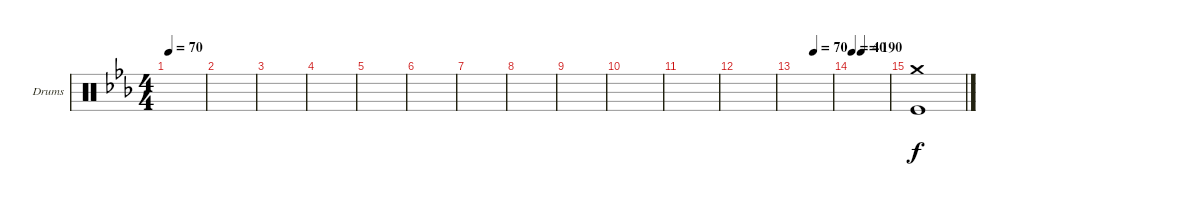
\defaultSystemsLayout 4
\bracketExtendMode groupsimilarinstruments
\firstSystemTrackNameOrientation horizontal
\otherSystemsTrackNameOrientation horizontal
\track ("Drumkit" "Drums") {instrument percussion}
\staff {score}
\articulation defaults
\ts (4 4)
\tempo 70
\clef neutral
\ks cminor
|
|
|
|
|
|
|
|
|
|
|
|
\tempo (70 0.5)
|
\tempo 40
\tempo (190 0.25)
|
("Crash medium (hit)" "Kick (hit)").1
